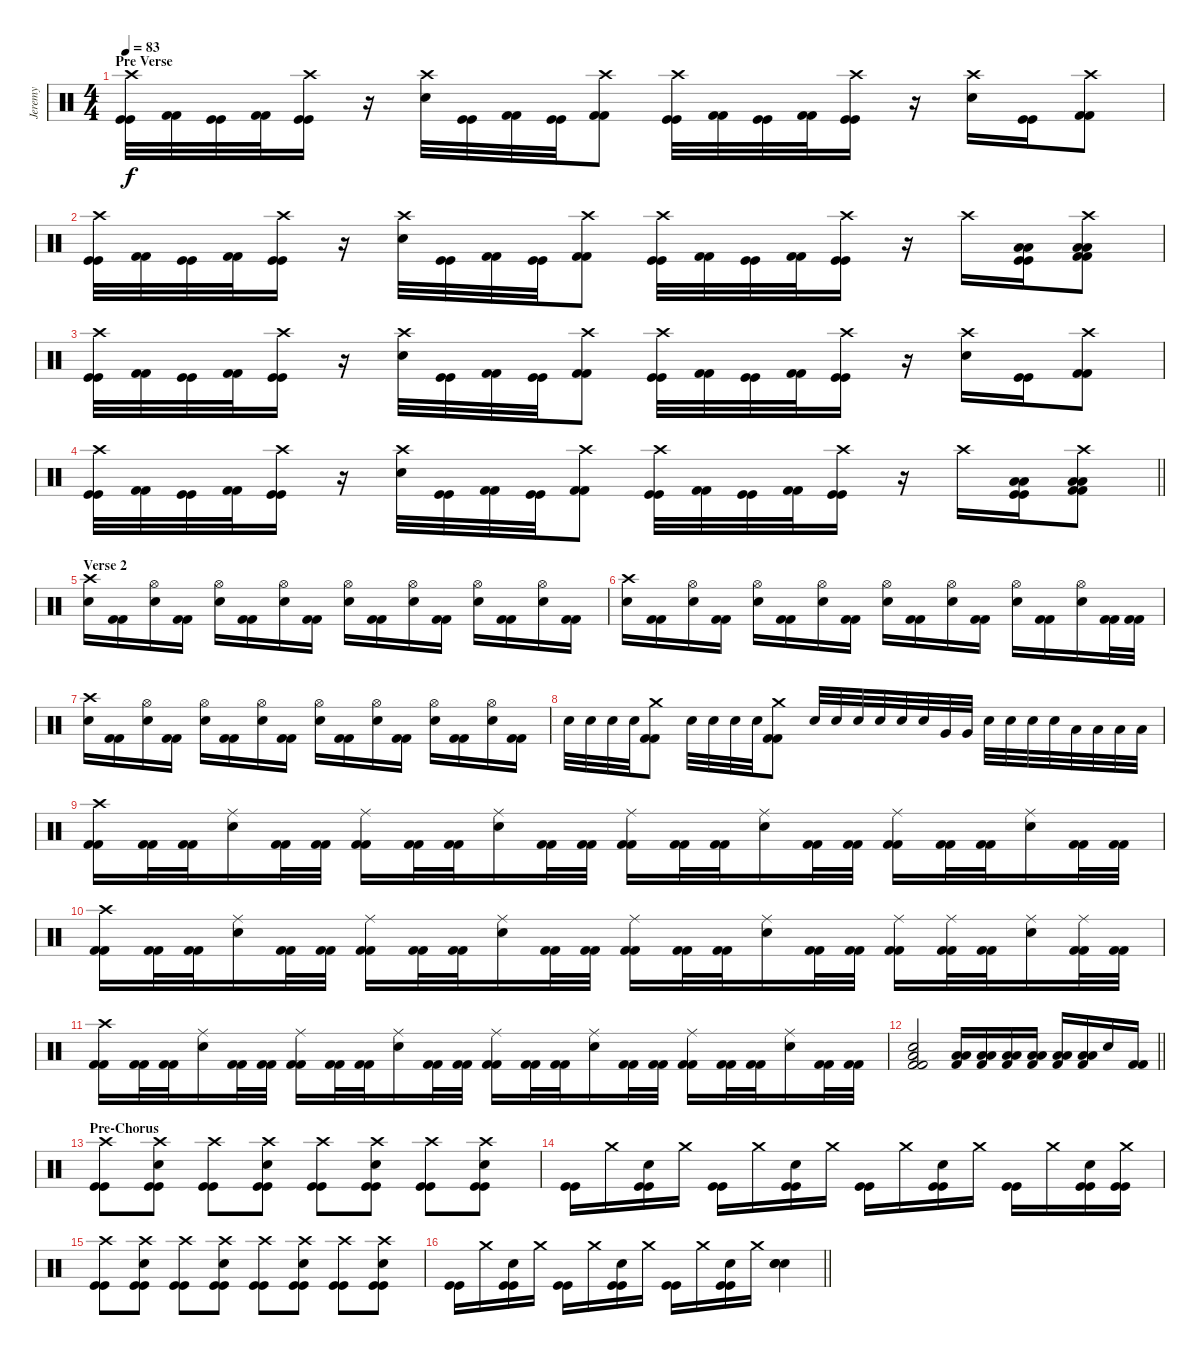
\track ("Jeremy" "Jeremy") {instrument percussion}
\staff {score}
\articulation defaults
\ts (4 4)
\section ("" "Pre Verse")
\tempo 83
\clef neutral
\ks c
("Crash high (hit)" "Kick (hit)" "Kick (hit)").32{dy f} ("Kick (hit) 2" "Kick (hit) 2").32 ("Kick (hit)" "Kick (hit)").32 ("Kick (hit) 2" "Kick (hit) 2").32 ("Crash high (hit)" "Kick (hit)" "Kick (hit)").16 r.16 ("Crash high (hit)" "Electric Snare (hit)").32 ("Kick (hit)" "Kick (hit)").32 ("Kick (hit) 2" "Kick (hit) 2").32 ("Kick (hit)" "Kick (hit)").32 ("Crash high (hit)" "Kick (hit) 2" "Kick (hit) 2").8 ("Crash high (hit)" "Kick (hit)" "Kick (hit)").32 ("Kick (hit) 2" "Kick (hit) 2").32 ("Kick (hit)" "Kick (hit)").32 ("Kick (hit) 2" "Kick (hit) 2").32 ("Crash high (hit)" "Kick (hit)" "Kick (hit)").16 r.16 ("Crash high (hit)" "Electric Snare (hit)").16 ("Kick (hit)" "Kick (hit)").16 ("Crash high (hit)" "Kick (hit) 2" "Kick (hit) 2").8 |
("Crash high (hit)" "Kick (hit)" "Kick (hit)").32 ("Kick (hit) 2" "Kick (hit) 2").32 ("Kick (hit)" "Kick (hit)").32 ("Kick (hit) 2" "Kick (hit) 2").32 ("Crash high (hit)" "Kick (hit)" "Kick (hit)").16 r.16 ("Crash high (hit)" "Electric Snare (hit)").32 ("Kick (hit)" "Kick (hit)").32 ("Kick (hit) 2" "Kick (hit) 2").32 ("Kick (hit)" "Kick (hit)").32 ("Crash high (hit)" "Kick (hit) 2" "Kick (hit) 2").8 ("Crash high (hit)" "Kick (hit)" "Kick (hit)").32 ("Kick (hit) 2" "Kick (hit) 2").32 ("Kick (hit)" "Kick (hit)").32 ("Kick (hit) 2" "Kick (hit) 2").32 ("Crash high (hit)" "Kick (hit)" "Kick (hit)").16 r.16 "Crash high (hit)".16 ("Low Floor Tom (hit)" "Low Tom (hit)" "Kick (hit)" "Kick (hit)").16 ("Crash high (hit)" "Low Floor Tom (hit)" "Low Tom (hit)" "Kick (hit) 2" "Kick (hit) 2").8 |
("Crash high (hit)" "Kick (hit)" "Kick (hit)").32 ("Kick (hit) 2" "Kick (hit) 2").32 ("Kick (hit)" "Kick (hit)").32 ("Kick (hit) 2" "Kick (hit) 2").32 ("Crash high (hit)" "Kick (hit)" "Kick (hit)").16 r.16 ("Crash high (hit)" "Electric Snare (hit)").32 ("Kick (hit)" "Kick (hit)").32 ("Kick (hit) 2" "Kick (hit) 2").32 ("Kick (hit)" "Kick (hit)").32 ("Crash high (hit)" "Kick (hit) 2" "Kick (hit) 2").8 ("Crash high (hit)" "Kick (hit)" "Kick (hit)").32 ("Kick (hit) 2" "Kick (hit) 2").32 ("Kick (hit)" "Kick (hit)").32 ("Kick (hit) 2" "Kick (hit) 2").32 ("Crash high (hit)" "Kick (hit)" "Kick (hit)").16 r.16 ("Crash high (hit)" "Electric Snare (hit)").16 ("Kick (hit)" "Kick (hit)").16 ("Crash high (hit)" "Kick (hit) 2" "Kick (hit) 2").8 |
\barLineRight lightlight
("Crash high (hit)" "Kick (hit)" "Kick (hit)").32 ("Kick (hit) 2" "Kick (hit) 2").32 ("Kick (hit)" "Kick (hit)").32 ("Kick (hit) 2" "Kick (hit) 2").32 ("Crash high (hit)" "Kick (hit)" "Kick (hit)").16 r.16 ("Crash high (hit)" "Electric Snare (hit)").32 ("Kick (hit)" "Kick (hit)").32 ("Kick (hit) 2" "Kick (hit) 2").32 ("Kick (hit)" "Kick (hit)").32 ("Crash high (hit)" "Kick (hit) 2" "Kick (hit) 2").8 ("Crash high (hit)" "Kick (hit)" "Kick (hit)").32 ("Kick (hit) 2" "Kick (hit) 2").32 ("Kick (hit)" "Kick (hit)").32 ("Kick (hit) 2" "Kick (hit) 2").32 ("Crash high (hit)" "Kick (hit)" "Kick (hit)").16 r.16 "Crash high (hit)".16 ("Low Floor Tom (hit)" "Low Tom (hit)" "Kick (hit)" "Kick (hit)").16 ("Crash high (hit)" "Low Floor Tom (hit)" "Low Tom (hit)" "Kick (hit) 2" "Kick (hit) 2").8 |
\section ("" "Verse 2")
("Crash high (hit)" "Electric Snare (hit)").16 ("Kick (hit) 2" "Kick (hit) 2").16 ("Hi-Hat (open)" "Electric Snare (hit)").16 ("Kick (hit) 2" "Kick (hit) 2").16 ("Hi-Hat (open)" "Electric Snare (hit)").16 ("Kick (hit) 2" "Kick (hit) 2").16 ("Hi-Hat (open)" "Electric Snare (hit)").16 ("Kick (hit) 2" "Kick (hit) 2").16 ("Hi-Hat (open)" "Electric Snare (hit)").16 ("Kick (hit) 2" "Kick (hit) 2").16 ("Hi-Hat (open)" "Electric Snare (hit)").16 ("Kick (hit) 2" "Kick (hit) 2").16 ("Hi-Hat (open)" "Electric Snare (hit)").16 ("Kick (hit) 2" "Kick (hit) 2").16 ("Hi-Hat (open)" "Electric Snare (hit)").16 ("Kick (hit) 2" "Kick (hit) 2").16 |
("Crash high (hit)" "Electric Snare (hit)").16 ("Kick (hit) 2" "Kick (hit) 2").16 ("Hi-Hat (open)" "Electric Snare (hit)").16 ("Kick (hit) 2" "Kick (hit) 2").16 ("Hi-Hat (open)" "Electric Snare (hit)").16 ("Kick (hit) 2" "Kick (hit) 2").16 ("Hi-Hat (open)" "Electric Snare (hit)").16 ("Kick (hit) 2" "Kick (hit) 2").16 ("Hi-Hat (open)" "Electric Snare (hit)").16 ("Kick (hit) 2" "Kick (hit) 2").16 ("Hi-Hat (open)" "Electric Snare (hit)").16 ("Kick (hit) 2" "Kick (hit) 2").16 ("Hi-Hat (open)" "Electric Snare (hit)").16 ("Kick (hit) 2" "Kick (hit) 2").16 ("Hi-Hat (open)" "Electric Snare (hit)").16 ("Kick (hit) 2" "Kick (hit) 2").32 ("Kick (hit) 2" "Kick (hit) 2").32 |
("Crash high (hit)" "Electric Snare (hit)").16 ("Kick (hit) 2" "Kick (hit) 2").16 ("Hi-Hat (open)" "Electric Snare (hit)").16 ("Kick (hit) 2" "Kick (hit) 2").16 ("Hi-Hat (open)" "Electric Snare (hit)").16 ("Kick (hit) 2" "Kick (hit) 2").16 ("Hi-Hat (open)" "Electric Snare (hit)").16 ("Kick (hit) 2" "Kick (hit) 2").16 ("Hi-Hat (open)" "Electric Snare (hit)").16 ("Kick (hit) 2" "Kick (hit) 2").16 ("Hi-Hat (open)" "Electric Snare (hit)").16 ("Kick (hit) 2" "Kick (hit) 2").16 ("Hi-Hat (open)" "Electric Snare (hit)").16 ("Kick (hit) 2" "Kick (hit) 2").16 ("Hi-Hat (open)" "Electric Snare (hit)").16 ("Kick (hit) 2" "Kick (hit) 2").16 |
"Electric Snare (hit)".32 "Electric Snare (hit)".32 "Electric Snare (hit)".32 "Electric Snare (hit)".32 ("Crash medium (hit)" "Kick (hit) 2" "Kick (hit) 2").8 "Electric Snare (hit)".32 "Electric Snare (hit)".32 "Electric Snare (hit)".32 "Electric Snare (hit)".32 ("Crash medium (hit)" "Kick (hit) 2" "Kick (hit) 2").8 "Electric Snare (hit)".32 "Electric Snare (hit)".32 "Electric Snare (hit)".32 "Electric Snare (hit)".32 "Electric Snare (hit)".32 "Electric Snare (hit)".32 "Very Low Tom (hit)".32 "Very Low Tom (hit)".32 "Electric Snare (hit)".32 "Electric Snare (hit)".32 "Electric Snare (hit)".32 "Electric Snare (hit)".32 "Low Tom (hit)".32 "Low Tom (hit)".32 "Low Tom (hit)".32 "Low Tom (hit)".32 |
("Crash high (hit)" "Kick (hit) 2" "Kick (hit) 2").16 ("Kick (hit) 2" "Kick (hit) 2").32 ("Kick (hit) 2" "Kick (hit) 2").32 ("Ride (middle)" "Electric Snare (hit)").16 ("Kick (hit) 2" "Kick (hit) 2").32 ("Kick (hit) 2" "Kick (hit) 2").32 ("Ride (middle)" "Kick (hit) 2" "Kick (hit) 2").16 ("Kick (hit) 2" "Kick (hit) 2").32 ("Kick (hit) 2" "Kick (hit) 2").32 ("Ride (middle)" "Electric Snare (hit)").16 ("Kick (hit) 2" "Kick (hit) 2").32 ("Kick (hit) 2" "Kick (hit) 2").32 ("Ride (middle)" "Kick (hit) 2" "Kick (hit) 2").16 ("Kick (hit) 2" "Kick (hit) 2").32 ("Kick (hit) 2" "Kick (hit) 2").32 ("Ride (middle)" "Electric Snare (hit)").16 ("Kick (hit) 2" "Kick (hit) 2").32 ("Kick (hit) 2" "Kick (hit) 2").32 ("Ride (middle)" "Kick (hit) 2" "Kick (hit) 2").16 ("Kick (hit) 2" "Kick (hit) 2").32 ("Kick (hit) 2" "Kick (hit) 2").32 ("Ride (middle)" "Electric Snare (hit)").16 ("Kick (hit) 2" "Kick (hit) 2").32 ("Kick (hit) 2" "Kick (hit) 2").32 |
("Crash high (hit)" "Kick (hit) 2" "Kick (hit) 2").16 ("Kick (hit) 2" "Kick (hit) 2").32 ("Kick (hit) 2" "Kick (hit) 2").32 ("Ride (middle)" "Electric Snare (hit)").16 ("Kick (hit) 2" "Kick (hit) 2").32 ("Kick (hit) 2" "Kick (hit) 2").32 ("Ride (middle)" "Kick (hit) 2" "Kick (hit) 2").16 ("Kick (hit) 2" "Kick (hit) 2").32 ("Kick (hit) 2" "Kick (hit) 2").32 ("Ride (middle)" "Electric Snare (hit)").16 ("Kick (hit) 2" "Kick (hit) 2").32 ("Kick (hit) 2" "Kick (hit) 2").32 ("Ride (middle)" "Kick (hit) 2" "Kick (hit) 2").16 ("Kick (hit) 2" "Kick (hit) 2").32 ("Kick (hit) 2" "Kick (hit) 2").32 ("Ride (middle)" "Electric Snare (hit)").16 ("Kick (hit) 2" "Kick (hit) 2").32 ("Kick (hit) 2" "Kick (hit) 2").32 ("Ride (middle)" "Kick (hit) 2" "Kick (hit) 2").16 ("Ride (middle)" "Kick (hit) 2" "Kick (hit) 2").32 ("Kick (hit) 2" "Kick (hit) 2").32 ("Ride (middle)" "Electric Snare (hit)").16 ("Ride (middle)" "Kick (hit) 2" "Kick (hit) 2").32 ("Kick (hit) 2" "Kick (hit) 2").32 |
("Crash high (hit)" "Kick (hit) 2" "Kick (hit) 2").16 ("Kick (hit) 2" "Kick (hit) 2").32 ("Kick (hit) 2" "Kick (hit) 2").32 ("Ride (middle)" "Electric Snare (hit)").16 ("Kick (hit) 2" "Kick (hit) 2").32 ("Kick (hit) 2" "Kick (hit) 2").32 ("Ride (middle)" "Kick (hit) 2" "Kick (hit) 2").16 ("Kick (hit) 2" "Kick (hit) 2").32 ("Kick (hit) 2" "Kick (hit) 2").32 ("Ride (middle)" "Electric Snare (hit)").16 ("Kick (hit) 2" "Kick (hit) 2").32 ("Kick (hit) 2" "Kick (hit) 2").32 ("Ride (middle)" "Kick (hit) 2" "Kick (hit) 2").16 ("Kick (hit) 2" "Kick (hit) 2").32 ("Kick (hit) 2" "Kick (hit) 2").32 ("Ride (middle)" "Electric Snare (hit)").16 ("Kick (hit) 2" "Kick (hit) 2").32 ("Kick (hit) 2" "Kick (hit) 2").32 ("Ride (middle)" "Kick (hit) 2" "Kick (hit) 2").16 ("Kick (hit) 2" "Kick (hit) 2").32 ("Kick (hit) 2" "Kick (hit) 2").32 ("Ride (middle)" "Electric Snare (hit)").16 ("Kick (hit) 2" "Kick (hit) 2").32 ("Kick (hit) 2" "Kick (hit) 2").32 |
\barLineRight lightlight
("Low Floor Tom (hit)" "Electric Snare (hit)" "Kick (hit) 2" "Kick (hit) 2").2 ("Low Floor Tom (hit)" "Low Tom (hit)" "Kick (hit) 2").16 ("Low Floor Tom (hit)" "Low Tom (hit)" "Kick (hit) 2").16 ("Low Floor Tom (hit)" "Low Tom (hit)" "Kick (hit) 2").16 ("Low Floor Tom (hit)" "Low Tom (hit)" "Kick (hit) 2").16 ("Low Floor Tom (hit)" "Low Tom (hit)" "Kick (hit) 2").16 ("Low Floor Tom (hit)" "Low Tom (hit)" "Kick (hit) 2").16 "Electric Snare (hit)".16 ("Kick (hit) 2" "Kick (hit) 2").16 |
\section ("" "Pre-Chorus")
("Crash high (hit)" "Kick (hit)" "Kick (hit)").8 ("Crash high (hit)" "Electric Snare (hit)" "Kick (hit)" "Kick (hit)").8 ("Crash high (hit)" "Kick (hit)" "Kick (hit)").8 ("Crash high (hit)" "Electric Snare (hit)" "Kick (hit)" "Kick (hit)").8 ("Crash high (hit)" "Kick (hit)" "Kick (hit)").8 ("Crash high (hit)" "Electric Snare (hit)" "Kick (hit)" "Kick (hit)").8 ("Crash high (hit)" "Kick (hit)" "Kick (hit)").8 ("Crash high (hit)" "Electric Snare (hit)" "Kick (hit)" "Kick (hit)").8 |
("Kick (hit)" "Kick (hit)").16 "Crash medium (hit)".16 ("Electric Snare (hit)" "Kick (hit)" "Kick (hit)").16 "Crash medium (hit)".16 ("Kick (hit)" "Kick (hit)").16 "Crash medium (hit)".16 ("Electric Snare (hit)" "Kick (hit)" "Kick (hit)").16 "Crash medium (hit)".16 ("Kick (hit)" "Kick (hit)").16 "Crash medium (hit)".16 ("Electric Snare (hit)" "Kick (hit)" "Kick (hit)").16 "Crash medium (hit)".16 ("Kick (hit)" "Kick (hit)").16 "Crash medium (hit)".16 ("Electric Snare (hit)" "Kick (hit)" "Kick (hit)").16 ("Crash medium (hit)" "Kick (hit)" "Kick (hit)").16 |
("Crash high (hit)" "Kick (hit)" "Kick (hit)").8 ("Crash high (hit)" "Electric Snare (hit)" "Kick (hit)" "Kick (hit)").8 ("Crash high (hit)" "Kick (hit)" "Kick (hit)").8 ("Crash high (hit)" "Electric Snare (hit)" "Kick (hit)" "Kick (hit)").8 ("Crash high (hit)" "Kick (hit)" "Kick (hit)").8 ("Crash high (hit)" "Electric Snare (hit)" "Kick (hit)" "Kick (hit)").8 ("Crash high (hit)" "Kick (hit)" "Kick (hit)").8 ("Crash high (hit)" "Electric Snare (hit)" "Kick (hit)" "Kick (hit)").8 |
\barLineRight lightlight
("Kick (hit)" "Kick (hit)").16 "Crash medium (hit)".16 ("Electric Snare (hit)" "Kick (hit)" "Kick (hit)").16 "Crash medium (hit)".16 ("Kick (hit)" "Kick (hit)").16 "Crash medium (hit)".16 ("Electric Snare (hit)" "Kick (hit)" "Kick (hit)").16 "Crash medium (hit)".16 ("Kick (hit)" "Kick (hit)").16 "Crash medium (hit)".16 ("Electric Snare (hit)" "Kick (hit)" "Kick (hit)").16 "Crash medium (hit)".16 ("Electric Snare (hit)" "Electric Snare (hit)" "Electric Snare (hit)").4
